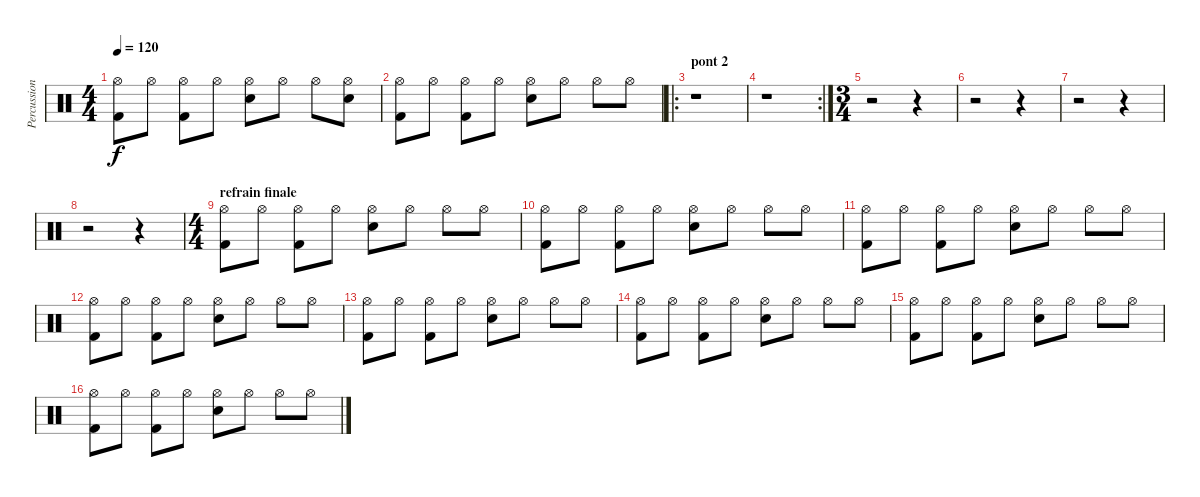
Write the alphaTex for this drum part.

\track ("Percussions" "Percussion") {instrument percussion}
\staff {score}
\articulation defaults
\ts (4 4)
\tempo 120
\clef neutral
\ks c
("Hi-Hat (open)" "Kick (hit) 2").8{dy f} "Hi-Hat (open)".8 ("Hi-Hat (open)" "Kick (hit) 2").8 "Hi-Hat (open)".8 ("Hi-Hat (open)" "Electric Snare (hit)").8 "Hi-Hat (open)".8 "Hi-Hat (open)".8 ("Hi-Hat (open)" "Electric Snare (hit)").8 |
("Hi-Hat (open)" "Kick (hit) 2").8 "Hi-Hat (open)".8 ("Hi-Hat (open)" "Kick (hit) 2").8 "Hi-Hat (open)".8 ("Hi-Hat (open)" "Electric Snare (hit)").8 "Hi-Hat (open)".8 "Hi-Hat (open)".8 "Hi-Hat (open)".8 |
\ro
\section ("" "pont 2")
r.1 |
\rc 2
r.1 |
\ts (3 4)
r.2 r.4 |
r.2 r.4 |
r.2 r.4 |
r.2 r.4 |
\ts (4 4)
\section ("" "refrain finale")
("Hi-Hat (open)" "Kick (hit) 2").8 "Hi-Hat (open)".8 ("Hi-Hat (open)" "Kick (hit) 2").8 "Hi-Hat (open)".8 ("Hi-Hat (open)" "Electric Snare (hit)").8 "Hi-Hat (open)".8 "Hi-Hat (open)".8 "Hi-Hat (open)".8 |
("Hi-Hat (open)" "Kick (hit) 2").8 "Hi-Hat (open)".8 ("Hi-Hat (open)" "Kick (hit) 2").8 "Hi-Hat (open)".8 ("Hi-Hat (open)" "Electric Snare (hit)").8 "Hi-Hat (open)".8 "Hi-Hat (open)".8 "Hi-Hat (open)".8 |
("Hi-Hat (open)" "Kick (hit) 2").8 "Hi-Hat (open)".8 ("Hi-Hat (open)" "Kick (hit) 2").8 "Hi-Hat (open)".8 ("Hi-Hat (open)" "Electric Snare (hit)").8 "Hi-Hat (open)".8 "Hi-Hat (open)".8 "Hi-Hat (open)".8 |
("Hi-Hat (open)" "Kick (hit) 2").8 "Hi-Hat (open)".8 ("Hi-Hat (open)" "Kick (hit) 2").8 "Hi-Hat (open)".8 ("Hi-Hat (open)" "Electric Snare (hit)").8 "Hi-Hat (open)".8 "Hi-Hat (open)".8 "Hi-Hat (open)".8 |
("Hi-Hat (open)" "Kick (hit) 2").8 "Hi-Hat (open)".8 ("Hi-Hat (open)" "Kick (hit) 2").8 "Hi-Hat (open)".8 ("Hi-Hat (open)" "Electric Snare (hit)").8 "Hi-Hat (open)".8 "Hi-Hat (open)".8 "Hi-Hat (open)".8 |
("Hi-Hat (open)" "Kick (hit) 2").8 "Hi-Hat (open)".8 ("Hi-Hat (open)" "Kick (hit) 2").8 "Hi-Hat (open)".8 ("Hi-Hat (open)" "Electric Snare (hit)").8 "Hi-Hat (open)".8 "Hi-Hat (open)".8 "Hi-Hat (open)".8 |
("Hi-Hat (open)" "Kick (hit) 2").8 "Hi-Hat (open)".8 ("Hi-Hat (open)" "Kick (hit) 2").8 "Hi-Hat (open)".8 ("Hi-Hat (open)" "Electric Snare (hit)").8 "Hi-Hat (open)".8 "Hi-Hat (open)".8 "Hi-Hat (open)".8 |
("Hi-Hat (open)" "Kick (hit) 2").8 "Hi-Hat (open)".8 ("Hi-Hat (open)" "Kick (hit) 2").8 "Hi-Hat (open)".8 ("Hi-Hat (open)" "Electric Snare (hit)").8 "Hi-Hat (open)".8 "Hi-Hat (open)".8 "Hi-Hat (open)".8
